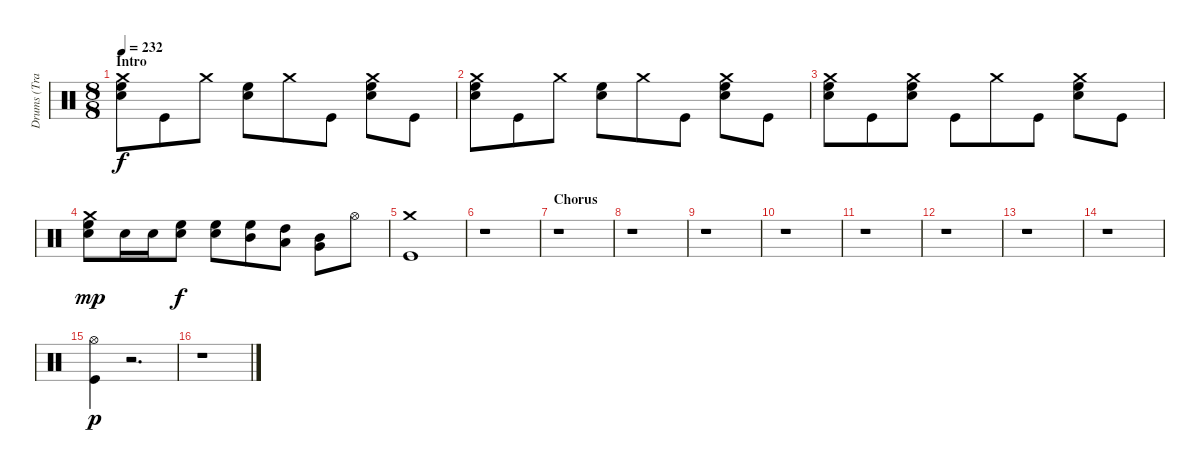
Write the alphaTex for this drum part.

\track ("Drums (Travis)" "Drums (Tra") {instrument percussion}
\staff {score}
\articulation defaults
\ts (8 8)
\section ("" "Intro")
\tempo 232
\clef neutral
\ks c
("High Floor Tom (hit)" "Electric Snare (hit)" "Crash medium (hit)").8{dy f} "Kick (hit)".8 "Crash medium (hit)".8 ("Electric Snare (hit)" "High Floor Tom (hit)").8 "Crash medium (hit)".8 "Kick (hit)".8 ("Electric Snare (hit)" "High Floor Tom (hit)" "Crash medium (hit)").8 "Kick (hit)".8 |
("Electric Snare (hit)" "High Floor Tom (hit)" "Crash medium (hit)").8 "Kick (hit)".8 "Crash medium (hit)".8 ("Electric Snare (hit)" "High Floor Tom (hit)").8 "Crash medium (hit)".8 "Kick (hit)".8 ("Electric Snare (hit)" "High Floor Tom (hit)" "Crash medium (hit)").8 "Kick (hit)".8 |
("Electric Snare (hit)" "High Floor Tom (hit)" "Crash medium (hit)").8 "Kick (hit)".8 ("Electric Snare (hit)" "High Floor Tom (hit)" "Crash medium (hit)").8 "Kick (hit)".8 "Crash medium (hit)".8 "Kick (hit)".8 ("Electric Snare (hit)" "High Floor Tom (hit)" "Crash medium (hit)").8 "Kick (hit)".8 |
("Crash medium (hit)" "Electric Snare (hit)" "High Floor Tom (hit)").8{dy mp} "Electric Snare (hit)".16 "Electric Snare (hit)".16 ("Electric Snare (hit)" "High Floor Tom (hit)").8{dy f} ("Electric Snare (hit)" "High Floor Tom (hit)").8 ("Mid Tom (hit)" "High Floor Tom (hit)").8 ("Low Tom (hit)" "High Tom (hit)").8 ("Very Low Tom (hit)" "Mid Tom (hit)").8 "Hi-Hat (open)".8 |
("Kick (hit)" "Crash medium (hit)").1 |
r.1 |
\section ("" "Chorus")
r.1 |
r.1 |
r.1 |
r.1 |
r.1 |
r.1 |
r.1 |
r.1 |
("Hi-Hat (open)" "Kick (hit)").4{dy p} r.2{d} |
r.1
